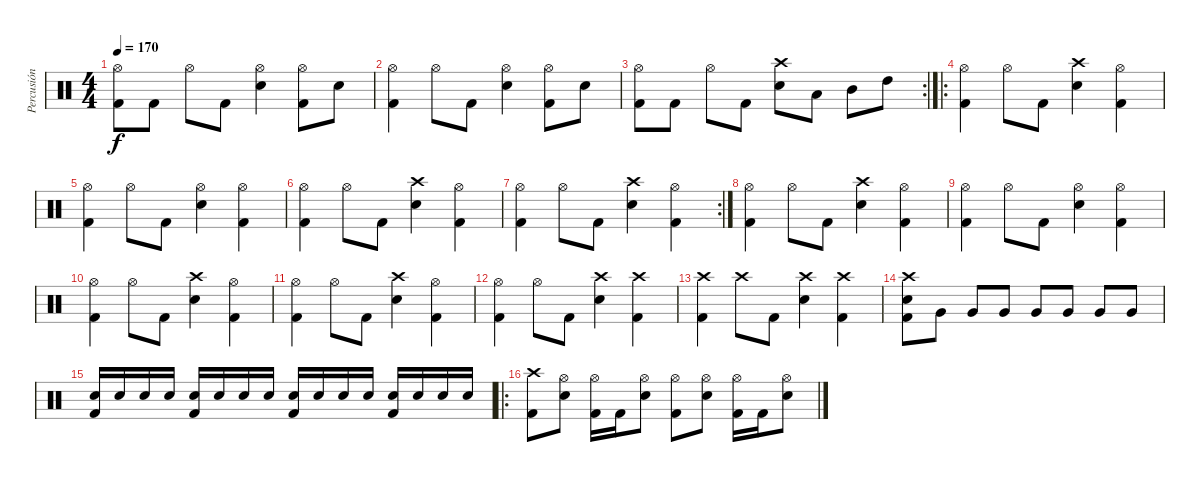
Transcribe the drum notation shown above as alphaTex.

\track ("Percusión" "Percusión") {instrument percussion}
\staff {score}
\articulation defaults
\ts (4 4)
\tempo 170
\clef neutral
\ks c
("Kick (hit) 2" "Hi-Hat (open)").8{dy f} "Kick (hit) 2".8 "Hi-Hat (open)".8 "Kick (hit) 2".8 ("Snare (hit) 2" "Hi-Hat (open)").4 ("Kick (hit) 2" "Hi-Hat (open)").8 "Snare (hit) 2".8 |
("Kick (hit) 2" "Hi-Hat (open)").4 "Hi-Hat (open)".8 "Kick (hit) 2".8 ("Snare (hit) 2" "Hi-Hat (open)").4 ("Kick (hit) 2" "Hi-Hat (open)").8 "Snare (hit) 2".8 |
\rc 2
("Kick (hit) 2" "Hi-Hat (open)").8 "Kick (hit) 2".8 "Hi-Hat (open)".8 "Kick (hit) 2".8 ("Snare (hit) 2" "Crash high (hit)").8 "Low Tom (hit)".8 "Mid Tom (hit)".8 "High Tom (hit)".8 |
\ro
("Kick (hit) 2" "Hi-Hat (open)").4 "Hi-Hat (open)".8 "Kick (hit) 2".8 ("Snare (hit) 2" "Crash high (hit)").4 ("Kick (hit) 2" "Hi-Hat (open)").4 |
("Kick (hit) 2" "Hi-Hat (open)").4 "Hi-Hat (open)".8 "Kick (hit) 2".8 ("Snare (hit) 2" "Hi-Hat (open)").4 ("Kick (hit) 2" "Hi-Hat (open)").4 |
("Kick (hit) 2" "Hi-Hat (open)").4 "Hi-Hat (open)".8 "Kick (hit) 2".8 ("Snare (hit) 2" "Crash high (hit)").4 ("Kick (hit) 2" "Hi-Hat (open)").4 |
\rc 2
("Kick (hit) 2" "Hi-Hat (open)").4 "Hi-Hat (open)".8 "Kick (hit) 2".8 ("Snare (hit) 2" "Crash high (hit)").4 ("Kick (hit) 2" "Hi-Hat (open)").4 |
("Kick (hit) 2" "Hi-Hat (open)").4 "Hi-Hat (open)".8 "Kick (hit) 2".8 ("Snare (hit) 2" "Crash high (hit)").4 ("Kick (hit) 2" "Hi-Hat (open)").4 |
("Kick (hit) 2" "Hi-Hat (open)").4 "Hi-Hat (open)".8 "Kick (hit) 2".8 ("Snare (hit) 2" "Hi-Hat (open)").4 ("Kick (hit) 2" "Hi-Hat (open)").4 |
("Kick (hit) 2" "Hi-Hat (open)").4 "Hi-Hat (open)".8 "Kick (hit) 2".8 ("Snare (hit) 2" "Crash high (hit)").4 ("Kick (hit) 2" "Hi-Hat (open)").4 |
("Kick (hit) 2" "Hi-Hat (open)").4 "Hi-Hat (open)".8 "Kick (hit) 2".8 ("Snare (hit) 2" "Crash high (hit)").4 ("Kick (hit) 2" "Hi-Hat (open)").4 |
("Kick (hit) 2" "Hi-Hat (open)").4 "Hi-Hat (open)".8 "Kick (hit) 2".8 ("Snare (hit) 2" "Crash high (hit)").4 ("Kick (hit) 2" "Crash high (hit)").4 |
("Kick (hit) 2" "Crash high (hit)").4 "Crash high (hit)".8 "Kick (hit) 2".8 ("Snare (hit) 2" "Crash high (hit)").4 ("Kick (hit) 2" "Crash high (hit)").4 |
("Kick (hit) 2" "Snare (hit) 2" "Crash high (hit)").8 "Very Low Tom (hit)".8 "Very Low Tom (hit)".8 "Very Low Tom (hit)".8 "Very Low Tom (hit)".8 "Very Low Tom (hit)".8 "Very Low Tom (hit)".8 "Very Low Tom (hit)".8 |
("Kick (hit) 2" "Snare (hit) 2").16 "Snare (hit) 2".16 "Snare (hit) 2".16 "Snare (hit) 2".16 ("Kick (hit) 2" "Snare (hit) 2").16 "Snare (hit) 2".16 "Snare (hit) 2".16 "Snare (hit) 2".16 ("Kick (hit) 2" "Snare (hit) 2").16 "Snare (hit) 2".16 "Snare (hit) 2".16 "Snare (hit) 2".16 ("Kick (hit) 2" "Snare (hit) 2").16 "Snare (hit) 2".16 "Snare (hit) 2".16 "Snare (hit) 2".16 |
\ro
("Kick (hit) 2" "Crash high (hit)").8 ("Snare (hit) 2" "Hi-Hat (open)").8 ("Kick (hit) 2" "Hi-Hat (open)").16 "Kick (hit) 2".16 ("Snare (hit) 2" "Hi-Hat (open)").8 ("Kick (hit) 2" "Hi-Hat (open)").8 ("Snare (hit) 2" "Hi-Hat (open)").8 ("Kick (hit) 2" "Hi-Hat (open)").16 "Kick (hit) 2".16 ("Snare (hit) 2" "Hi-Hat (open)").8
